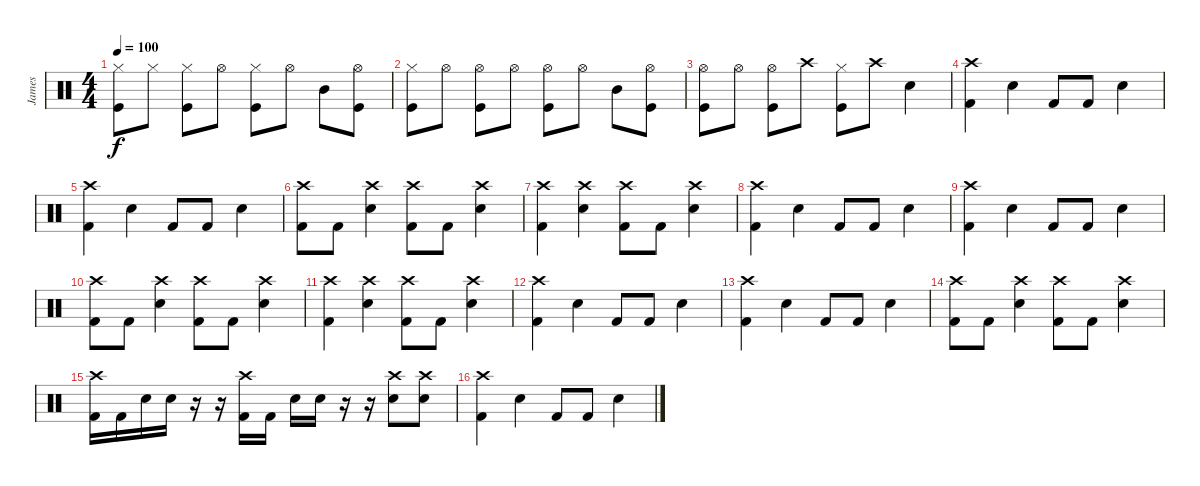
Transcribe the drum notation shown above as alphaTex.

\track ("James" "James") {instrument percussion}
\staff {score}
\articulation defaults
\ts (4 4)
\tempo 100
\clef neutral
\ks c
("Kick (hit)" "Hi-Hat (closed)").8{dy f} "Hi-Hat (closed)".8 ("Kick (hit)" "Hi-Hat (closed)").8 "Hi-Hat (open)".8 ("Kick (hit)" "Hi-Hat (closed)").8 "Hi-Hat (open)".8 "Mid Tom (hit)".8 ("Kick (hit)" "Hi-Hat (open)").8 |
("Kick (hit)" "Hi-Hat (closed)").8 "Hi-Hat (open)".8 ("Kick (hit)" "Hi-Hat (open)").8 "Hi-Hat (open)".8 ("Kick (hit)" "Hi-Hat (open)").8 "Hi-Hat (open)".8 "Mid Tom (hit)".8 ("Kick (hit)" "Hi-Hat (open)").8 |
("Kick (hit)" "Hi-Hat (open)").8 "Hi-Hat (open)".8 ("Kick (hit)" "Hi-Hat (open)").8 "Crash high (hit)".8 ("Kick (hit)" "Hi-Hat (closed)").8 "Crash high (hit)".8 "Electric Snare (hit)".4 |
("Kick (hit) 2" "Crash high (hit)").4 "Electric Snare (hit)".4 "Kick (hit) 2".8 "Kick (hit) 2".8 "Electric Snare (hit)".4 |
("Kick (hit) 2" "Crash high (hit)").4 "Electric Snare (hit)".4 "Kick (hit) 2".8 "Kick (hit) 2".8 "Electric Snare (hit)".4 |
("Kick (hit) 2" "Crash high (hit)").8 "Kick (hit) 2".8 ("Electric Snare (hit)" "Crash high (hit)").4 ("Kick (hit) 2" "Crash high (hit)").8 "Kick (hit) 2".8 ("Electric Snare (hit)" "Crash high (hit)").4 |
("Kick (hit) 2" "Crash high (hit)").4 ("Electric Snare (hit)" "Crash high (hit)").4 ("Kick (hit) 2" "Crash high (hit)").8 "Kick (hit) 2".8 ("Electric Snare (hit)" "Crash high (hit)").4 |
("Kick (hit) 2" "Crash high (hit)").4 "Electric Snare (hit)".4 "Kick (hit) 2".8 "Kick (hit) 2".8 "Electric Snare (hit)".4 |
("Kick (hit) 2" "Crash high (hit)").4 "Electric Snare (hit)".4 "Kick (hit) 2".8 "Kick (hit) 2".8 "Electric Snare (hit)".4 |
("Kick (hit) 2" "Crash high (hit)").8 "Kick (hit) 2".8 ("Electric Snare (hit)" "Crash high (hit)").4 ("Kick (hit) 2" "Crash high (hit)").8 "Kick (hit) 2".8 ("Electric Snare (hit)" "Crash high (hit)").4 |
("Kick (hit) 2" "Crash high (hit)").4 ("Electric Snare (hit)" "Crash high (hit)").4 ("Kick (hit) 2" "Crash high (hit)").8 "Kick (hit) 2".8 ("Electric Snare (hit)" "Crash high (hit)").4 |
("Kick (hit) 2" "Crash high (hit)").4 "Electric Snare (hit)".4 "Kick (hit) 2".8 "Kick (hit) 2".8 "Electric Snare (hit)".4 |
("Kick (hit) 2" "Crash high (hit)").4 "Electric Snare (hit)".4 "Kick (hit) 2".8 "Kick (hit) 2".8 "Electric Snare (hit)".4 |
("Kick (hit) 2" "Crash high (hit)").8 "Kick (hit) 2".8 ("Electric Snare (hit)" "Crash high (hit)").4 ("Kick (hit) 2" "Crash high (hit)").8 "Kick (hit) 2".8 ("Electric Snare (hit)" "Crash high (hit)").4 |
("Kick (hit) 2" "Crash high (hit)").16 "Kick (hit) 2".16 "Electric Snare (hit)".16 "Electric Snare (hit)".16 r.16 r.16 ("Kick (hit) 2" "Crash high (hit)").16 "Kick (hit) 2".16 "Electric Snare (hit)".16 "Electric Snare (hit)".16 r.16 r.16 ("Electric Snare (hit)" "Crash high (hit)").8 ("Electric Snare (hit)" "Crash high (hit)").8 |
("Kick (hit) 2" "Crash high (hit)").4 "Electric Snare (hit)".4 "Kick (hit) 2".8 "Kick (hit) 2".8 "Electric Snare (hit)".4
